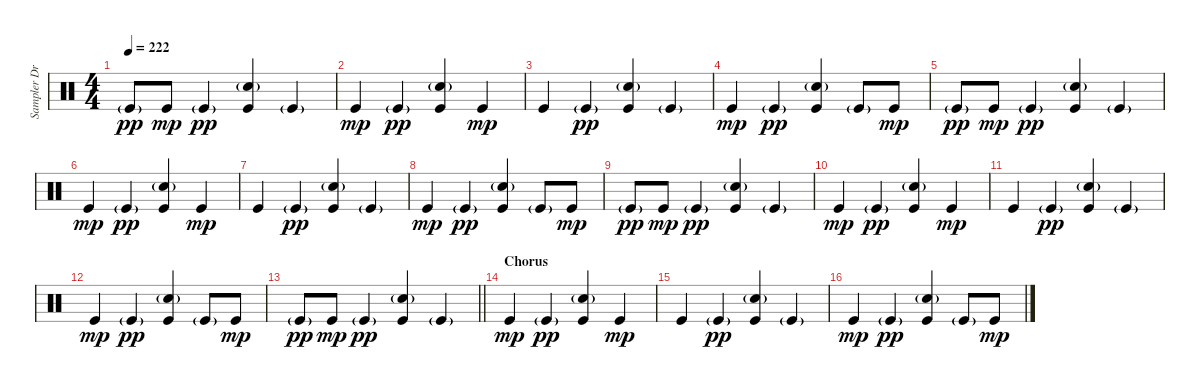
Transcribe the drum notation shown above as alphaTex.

\track ("Sampler Drums 1" "Sampler Dr") {instrument percussion}
\staff {score}
\articulation defaults
\ts (4 4)
\tempo 222
\clef neutral
\ks c "Kick (hit)"{g}.8{dy pp} "Kick (hit)".8{dy mp} "Kick (hit)"{g}.4{dy pp}
("Kick (hit)" "Snare (hit) 2"{g}).4 "Kick (hit)"{g}.4 |
"Kick (hit)".4{dy mp} "Kick (hit)"{g}.4{dy pp} ("Kick (hit)" "Snare (hit) 2"{g}).4 "Kick (hit)".4{dy mp} |
"Kick (hit)".4 "Kick (hit)"{g}.4{dy pp} ("Kick (hit)" "Snare (hit) 2"{g}).4 "Kick (hit)"{g}.4 |
"Kick (hit)".4{dy mp} "Kick (hit)"{g}.4{dy pp} ("Kick (hit)" "Snare (hit) 2"{g}).4 "Kick (hit)"{g}.8 "Kick (hit)".8{dy mp} |
"Kick (hit)"{g}.8{dy pp} "Kick (hit)".8{dy mp} "Kick (hit)"{g}.4{dy pp} ("Kick (hit)" "Snare (hit) 2"{g}).4 "Kick (hit)"{g}.4 |
"Kick (hit)".4{dy mp} "Kick (hit)"{g}.4{dy pp} ("Kick (hit)" "Snare (hit) 2"{g}).4 "Kick (hit)".4{dy mp} |
"Kick (hit)".4 "Kick (hit)"{g}.4{dy pp} ("Kick (hit)" "Snare (hit) 2"{g}).4 "Kick (hit)"{g}.4 |
"Kick (hit)".4{dy mp} "Kick (hit)"{g}.4{dy pp} ("Kick (hit)" "Snare (hit) 2"{g}).4 "Kick (hit)"{g}.8 "Kick (hit)".8{dy mp} |
"Kick (hit)"{g}.8{dy pp} "Kick (hit)".8{dy mp} "Kick (hit)"{g}.4{dy pp} ("Kick (hit)" "Snare (hit) 2"{g}).4 "Kick (hit)"{g}.4 |
"Kick (hit)".4{dy mp} "Kick (hit)"{g}.4{dy pp} ("Kick (hit)" "Snare (hit) 2"{g}).4 "Kick (hit)".4{dy mp} |
"Kick (hit)".4 "Kick (hit)"{g}.4{dy pp} ("Kick (hit)" "Snare (hit) 2"{g}).4 "Kick (hit)"{g}.4 |
"Kick (hit)".4{dy mp} "Kick (hit)"{g}.4{dy pp} ("Kick (hit)" "Snare (hit) 2"{g}).4 "Kick (hit)"{g}.8 "Kick (hit)".8{dy mp} |
\barLineRight lightlight "Kick (hit)"{g}.8{dy pp} "Kick (hit)".8{dy mp} "Kick (hit)"{g}.4{dy pp}
("Kick (hit)" "Snare (hit) 2"{g}).4 "Kick (hit)"{g}.4 |
\section ("" "Chorus")
"Kick (hit)".4{dy mp} "Kick (hit)"{g}.4{dy pp} ("Kick (hit)" "Snare (hit) 2"{g}).4 "Kick (hit)".4{dy mp} |
"Kick (hit)".4 "Kick (hit)"{g}.4{dy pp} ("Kick (hit)" "Snare (hit) 2"{g}).4 "Kick (hit)"{g}.4 |
"Kick (hit)".4{dy mp} "Kick (hit)"{g}.4{dy pp} ("Kick (hit)" "Snare (hit) 2"{g}).4 "Kick (hit)"{g}.8 "Kick (hit)".8{dy mp}
